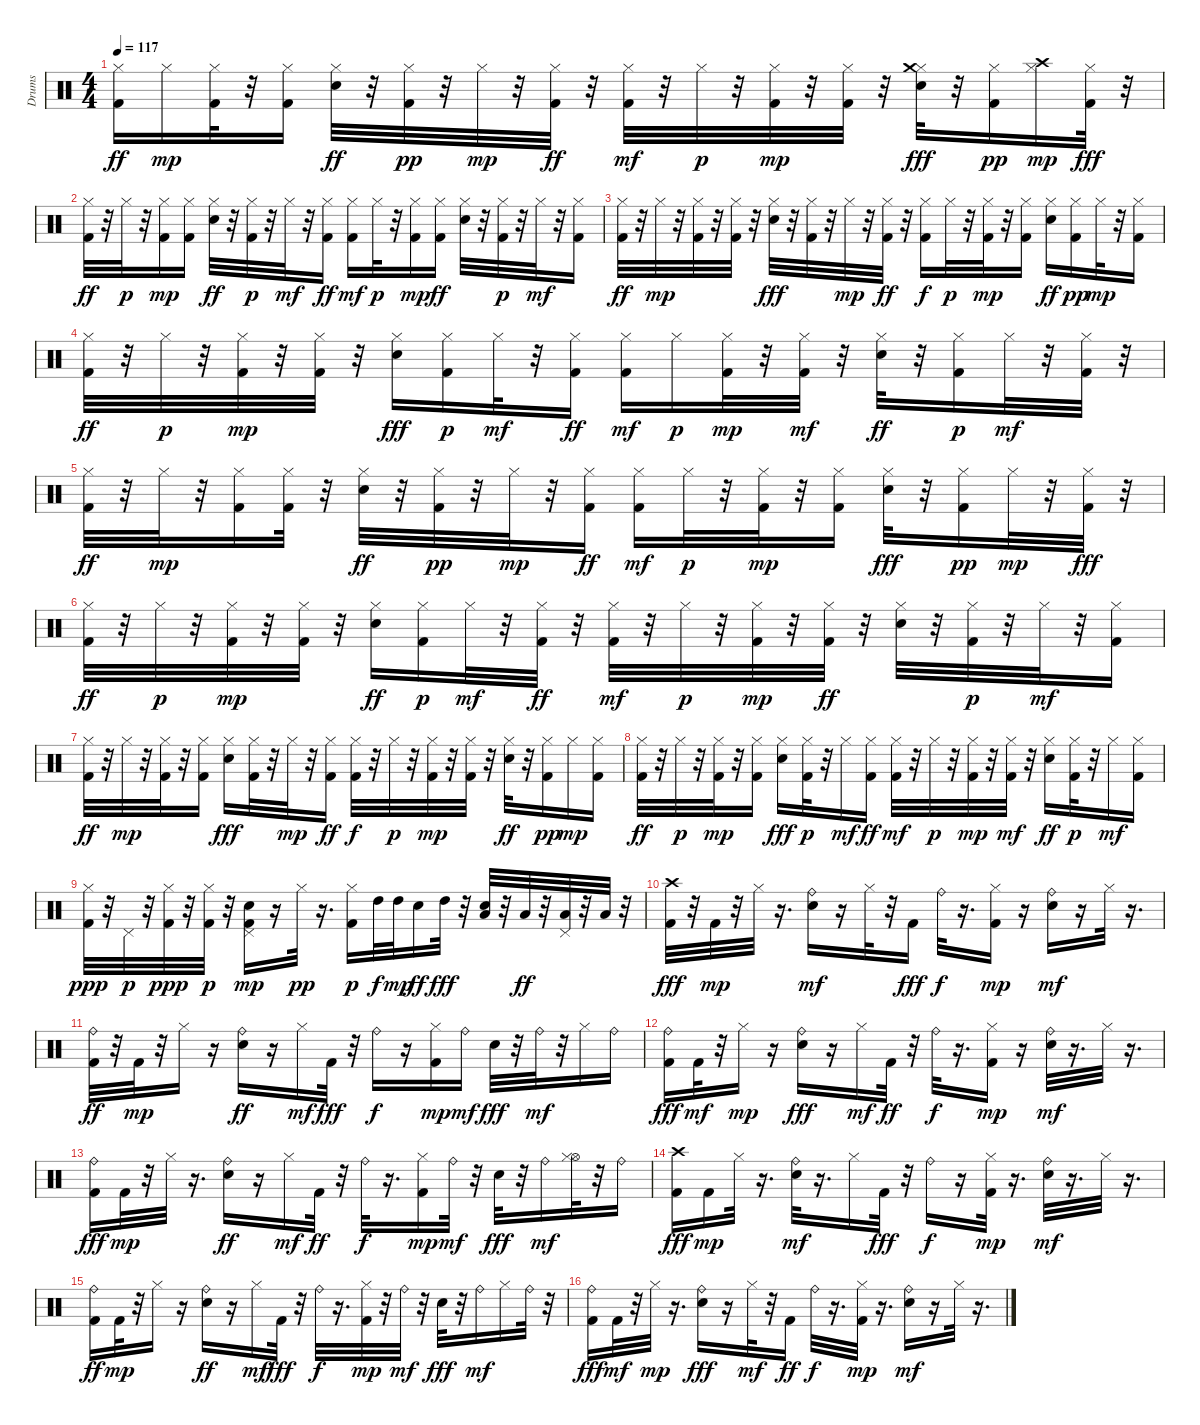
\track ("Drums" "Drums") {instrument percussion}
\staff {score}
\articulation defaults
\ts (4 4)
\tempo 117
\clef neutral
\ks c
("Kick (hit) 2" "Hi-Hat (closed)").16{dy ff} "Hi-Hat (closed)".16{dy mp} ("Kick (hit) 2" "Hi-Hat (closed)").32 r.32 ("Kick (hit) 2" "Hi-Hat (closed)").16 ("Hi-Hat (closed)" "Snare (hit) 2").32{dy ff} r.32 ("Hi-Hat (closed)" "Kick (hit) 2").32{dy pp} r.32 "Hi-Hat (closed)".32{dy mp} r.32 ("Kick (hit) 2" "Hi-Hat (closed)").32{dy ff} r.32 ("Kick (hit) 2" "Hi-Hat (closed)").32{dy mf} r.32 "Hi-Hat (closed)".32{dy p} r.32 ("Kick (hit) 2" "Hi-Hat (closed)").32{dy mp} r.32 ("Kick (hit) 2" "Hi-Hat (closed)").32 r.32 ("Hi-Hat (closed)" "Crash medium (hit)" "Snare (hit) 2").32{dy fff} r.32 ("Kick (hit) 2" "Hi-Hat (closed)").16{dy pp} ("Hi-Hat (closed)" "Crash high (hit)").16{dy mp} ("Hi-Hat (closed)" "Kick (hit) 2").32{dy fff} r.32 |
("Kick (hit) 2" "Hi-Hat (closed)").32{dy ff} r.32 "Hi-Hat (closed)".32{dy p} r.32 ("Kick (hit) 2" "Hi-Hat (closed)").16{dy mp} ("Kick (hit) 2" "Hi-Hat (closed)").16 ("Hi-Hat (closed)" "Snare (hit) 2").32{dy ff} r.32 ("Kick (hit) 2" "Hi-Hat (closed)").32{dy p} r.32 "Hi-Hat (closed)".32{dy mf} r.32 ("Kick (hit) 2" "Hi-Hat (closed)").16{dy ff} ("Kick (hit) 2" "Hi-Hat (closed)").16{dy mf} "Hi-Hat (closed)".32{dy p} r.32 ("Kick (hit) 2" "Hi-Hat (closed)").16{dy mp} ("Kick (hit) 2" "Hi-Hat (closed)").16{dy ff} ("Hi-Hat (closed)" "Snare (hit) 2").32 r.32 ("Kick (hit) 2" "Hi-Hat (closed)").32{dy p} r.32 "Hi-Hat (closed)".32{dy mf} r.32 ("Kick (hit) 2" "Hi-Hat (closed)").16 |
("Kick (hit) 2" "Hi-Hat (closed)").32{dy ff} r.32 "Hi-Hat (closed)".32{dy mp} r.32 ("Kick (hit) 2" "Hi-Hat (closed)").32 r.32 ("Kick (hit) 2" "Hi-Hat (closed)").32 r.32 ("Hi-Hat (closed)" "Snare (hit) 2").32{dy fff} r.32 ("Hi-Hat (closed)" "Kick (hit) 2").32 r.32 "Hi-Hat (closed)".32{dy mp} r.32 ("Kick (hit) 2" "Hi-Hat (closed)").32{dy ff} r.32 ("Hi-Hat (closed)" "Kick (hit) 2").16{dy f} "Hi-Hat (closed)".32{dy p} r.32 ("Kick (hit) 2" "Hi-Hat (closed)").32{dy mp} r.32 ("Kick (hit) 2" "Hi-Hat (closed)").16 ("Hi-Hat (closed)" "Snare (hit) 2").16{dy ff} ("Kick (hit) 2" "Hi-Hat (closed)").16{dy pp} "Hi-Hat (closed)".32{dy mp} r.32 ("Kick (hit) 2" "Hi-Hat (closed)").16 |
("Kick (hit) 2" "Hi-Hat (closed)").32{dy ff} r.32 "Hi-Hat (closed)".32{dy p} r.32 ("Kick (hit) 2" "Hi-Hat (closed)").32{dy mp} r.32 ("Kick (hit) 2" "Hi-Hat (closed)").32 r.32 ("Hi-Hat (closed)" "Snare (hit) 2").16{dy fff} ("Kick (hit) 2" "Hi-Hat (closed)").16{dy p} "Hi-Hat (closed)".32{dy mf} r.32 ("Kick (hit) 2" "Hi-Hat (closed)").16{dy ff} ("Kick (hit) 2" "Hi-Hat (closed)").16{dy mf} "Hi-Hat (closed)".16{dy p} ("Kick (hit) 2" "Hi-Hat (closed)").32{dy mp} r.32 ("Hi-Hat (closed)" "Kick (hit) 2").32{dy mf} r.32 ("Hi-Hat (closed)" "Snare (hit) 2").32{dy ff} r.32 ("Kick (hit) 2" "Hi-Hat (closed)").16{dy p} "Hi-Hat (closed)".32{dy mf} r.32 ("Kick (hit) 2" "Hi-Hat (closed)").32 r.32 |
("Kick (hit) 2" "Hi-Hat (closed)").32{dy ff} r.32 "Hi-Hat (closed)".32{dy mp} r.32 ("Kick (hit) 2" "Hi-Hat (closed)").16 ("Kick (hit) 2" "Hi-Hat (closed)").32 r.32 ("Hi-Hat (closed)" "Snare (hit) 2").32{dy ff} r.32 ("Hi-Hat (closed)" "Kick (hit) 2").32{dy pp} r.32 "Hi-Hat (closed)".32{dy mp} r.32 ("Kick (hit) 2" "Hi-Hat (closed)").16{dy ff} ("Kick (hit) 2" "Hi-Hat (closed)").16{dy mf} "Hi-Hat (closed)".32{dy p} r.32 ("Kick (hit) 2" "Hi-Hat (closed)").32{dy mp} r.32 ("Kick (hit) 2" "Hi-Hat (closed)").16 ("Hi-Hat (closed)" "Snare (hit) 2").32{dy fff} r.32 ("Kick (hit) 2" "Hi-Hat (closed)").16{dy pp} "Hi-Hat (closed)".32{dy mp} r.32 ("Hi-Hat (closed)" "Kick (hit) 2").32{dy fff} r.32 |
("Kick (hit) 2" "Hi-Hat (closed)").32{dy ff} r.32 "Hi-Hat (closed)".32{dy p} r.32 ("Kick (hit) 2" "Hi-Hat (closed)").32{dy mp} r.32 ("Kick (hit) 2" "Hi-Hat (closed)").32 r.32 ("Hi-Hat (closed)" "Snare (hit) 2").16{dy ff} ("Kick (hit) 2" "Hi-Hat (closed)").16{dy p} "Hi-Hat (closed)".32{dy mf} r.32 ("Kick (hit) 2" "Hi-Hat (closed)").32{dy ff} r.32 ("Kick (hit) 2" "Hi-Hat (closed)").32{dy mf} r.32 "Hi-Hat (closed)".32{dy p} r.32 ("Kick (hit) 2" "Hi-Hat (closed)").32{dy mp} r.32 ("Kick (hit) 2" "Hi-Hat (closed)").32{dy ff} r.32 ("Hi-Hat (closed)" "Snare (hit) 2").32 r.32 ("Kick (hit) 2" "Hi-Hat (closed)").32{dy p} r.32 "Hi-Hat (closed)".32{dy mf} r.32 ("Kick (hit) 2" "Hi-Hat (closed)").16 |
("Kick (hit) 2" "Hi-Hat (closed)").32{dy ff} r.32 "Hi-Hat (closed)".32{dy mp} r.32 ("Kick (hit) 2" "Hi-Hat (closed)").32 r.32 ("Kick (hit) 2" "Hi-Hat (closed)").16 ("Hi-Hat (closed)" "Snare (hit) 2").16{dy fff} ("Hi-Hat (closed)" "Kick (hit) 2").32 r.32 "Hi-Hat (closed)".32{dy mp} r.32 ("Kick (hit) 2" "Hi-Hat (closed)").16{dy ff} ("Hi-Hat (closed)" "Kick (hit) 2").32{dy f} r.32 "Hi-Hat (closed)".32{dy p} r.32 ("Kick (hit) 2" "Hi-Hat (closed)").32{dy mp} r.32 ("Kick (hit) 2" "Hi-Hat (closed)").32 r.32 ("Hi-Hat (closed)" "Snare (hit) 2").32{dy ff} r.32 ("Kick (hit) 2" "Hi-Hat (closed)").16{dy pp} "Hi-Hat (closed)".16{dy mp} ("Kick (hit) 2" "Hi-Hat (closed)").16 |
("Kick (hit) 2" "Hi-Hat (closed)").32{dy ff} r.32 "Hi-Hat (closed)".32{dy p} r.32 ("Kick (hit) 2" "Hi-Hat (closed)").32{dy mp} r.32 ("Kick (hit) 2" "Hi-Hat (closed)").16 ("Hi-Hat (closed)" "Snare (hit) 2").16{dy fff} ("Kick (hit) 2" "Hi-Hat (closed)").32{dy p} r.32 "Hi-Hat (closed)".16{dy mf} ("Hi-Hat (closed)" "Kick (hit) 2").16{dy ff} ("Kick (hit) 2" "Hi-Hat (closed)").32{dy mf} r.32 "Hi-Hat (closed)".32{dy p} r.32 ("Kick (hit) 2" "Hi-Hat (closed)").32{dy mp} r.32 ("Hi-Hat (closed)" "Kick (hit) 2").32{dy mf} r.32 ("Hi-Hat (closed)" "Snare (hit) 2").16{dy ff} ("Kick (hit) 2" "Hi-Hat (closed)").32{dy p} r.32 "Hi-Hat (closed)".16{dy mf} ("Kick (hit) 2" "Hi-Hat (closed)").16 |
("Kick (hit) 2" "Hi-Hat (closed)").32{dy ppp} r.32 "Pedal Hi-Hat (hit)".32{dy p} r.32 ("Kick (hit) 2" "Hi-Hat (closed)").32{dy ppp} r.32 ("Kick (hit) 2" "Hi-Hat (closed)").32{dy p} r.32 ("Kick (hit) 2" "Snare (hit) 2" "Pedal Hi-Hat (hit)").16{dy mp} r.16 "Hi-Hat (closed)".32{dy pp} r.16{d} ("Kick (hit) 2" "Hi-Hat (closed)").16{dy p} "High Tom (hit)".32{dy f} "High Tom (hit)".32{dy mp} "Snare (hit) 2".16{dy ff} "High Tom (hit)".32{dy fff} r.32 ("Low Tom (hit)" "Snare (hit) 2").32 r.32 "Low Tom (hit)".32{dy ff} r.32 ("Pedal Hi-Hat (hit)" "Low Floor Tom (hit)").32 r.32 "Low Floor Tom (hit)".32 r.32 |
("Kick (hit) 2" "Crash high (hit)").32{dy fff} r.32 "Kick (hit) 2".32{dy mp} r.32 "Hi-Hat (closed)".32 r.16{d} ("Snare (hit) 2" "Ride (bell)").16{dy mf} r.16 "Hi-Hat (closed)".32 r.32 "Kick (hit) 2".16{dy fff} "Ride (bell)".32{dy f} r.16{d} ("Kick (hit) 2" "Hi-Hat (closed)").16{dy mp} r.16 ("Snare (hit) 2" "Ride (bell)").16{dy mf} r.16 "Hi-Hat (closed)".32 r.16{d} |
("Kick (hit) 2" "Ride (bell)").32{dy ff} r.32 "Kick (hit) 2".32{dy mp} r.32 "Hi-Hat (closed)".16 r.16 ("Ride (bell)" "Snare (hit) 2").16{dy ff} r.16 "Hi-Hat (closed)".16{dy mf} "Kick (hit) 2".32{dy fff} r.32 "Ride (bell)".16{dy f} r.16 ("Kick (hit) 2" "Hi-Hat (closed)").16{dy mp} "Ride (bell)".16{dy mf} "Snare (hit) 2".32{dy fff} r.32 "Ride (bell)".32{dy mf} r.32 "Hi-Hat (closed)".16 "Ride (bell)".16 |
("Kick (hit) 2" "Ride (bell)").16{dy fff} "Kick (hit) 2".32{dy mf} r.32 "Hi-Hat (closed)".16{dy mp} r.16 ("Ride (bell)" "Snare (hit) 2").16{dy fff} r.16 "Hi-Hat (closed)".16{dy mf} "Kick (hit) 2".32{dy ff} r.32 "Ride (bell)".32{dy f} r.16{d} ("Kick (hit) 2" "Hi-Hat (closed)").16{dy mp} r.16 ("Snare (hit) 2" "Ride (bell)").32{dy mf} r.16{d} "Hi-Hat (closed)".32 r.16{d} |
("Kick (hit) 2" "Ride (bell)").16{dy fff} "Kick (hit) 2".32{dy mp} r.32 "Hi-Hat (closed)".32 r.16{d} ("Ride (bell)" "Snare (hit) 2").16{dy ff} r.16 "Hi-Hat (closed)".16{dy mf} "Kick (hit) 2".32{dy ff} r.32 "Ride (bell)".32{dy f} r.16{d} ("Kick (hit) 2" "Hi-Hat (closed)").16{dy mp} "Ride (bell)".32{dy mf} r.32 "Snare (hit) 2".32{dy fff} r.32 "Ride (bell)".16{dy mf} ("Hi-Hat (open)" "Hi-Hat (closed)").32 r.32 "Ride (bell)".16 |
("Kick (hit) 2" "Crash high (hit)").16{dy fff} "Kick (hit) 2".16{dy mp} "Hi-Hat (closed)".32 r.16{d} ("Snare (hit) 2" "Ride (bell)").32{dy mf} r.16{d} "Hi-Hat (closed)".16 "Kick (hit) 2".32{dy fff} r.32 "Ride (bell)".16{dy f} r.16 ("Kick (hit) 2" "Hi-Hat (closed)").32{dy mp} r.16{d} ("Snare (hit) 2" "Ride (bell)").32{dy mf} r.16{d} "Hi-Hat (closed)".32 r.16{d} |
("Kick (hit) 2" "Ride (bell)").16{dy ff} "Kick (hit) 2".32{dy mp} r.32 "Hi-Hat (closed)".16 r.16 ("Ride (bell)" "Snare (hit) 2").16{dy ff} r.16 "Hi-Hat (closed)".16{dy mf} "Kick (hit) 2".32{dy fff} r.32 "Ride (bell)".32{dy f} r.16{d} ("Kick (hit) 2" "Hi-Hat (closed)").32{dy mp} r.32 "Ride (bell)".32{dy mf} r.32 "Snare (hit) 2".32{dy fff} r.32 "Ride (bell)".16{dy mf} "Hi-Hat (closed)".16 "Ride (bell)".32 r.32 |
("Kick (hit) 2" "Ride (bell)").16{dy fff} "Kick (hit) 2".32{dy mf} r.32 "Hi-Hat (closed)".32{dy mp} r.16{d} ("Ride (bell)" "Snare (hit) 2").16{dy fff} r.16 "Hi-Hat (closed)".32{dy mf} r.32 "Kick (hit) 2".16{dy ff} "Ride (bell)".32{dy f} r.16{d} ("Kick (hit) 2" "Hi-Hat (closed)").32{dy mp} r.16{d} ("Snare (hit) 2" "Ride (bell)").16{dy mf} r.16 "Hi-Hat (closed)".32 r.16{d}
